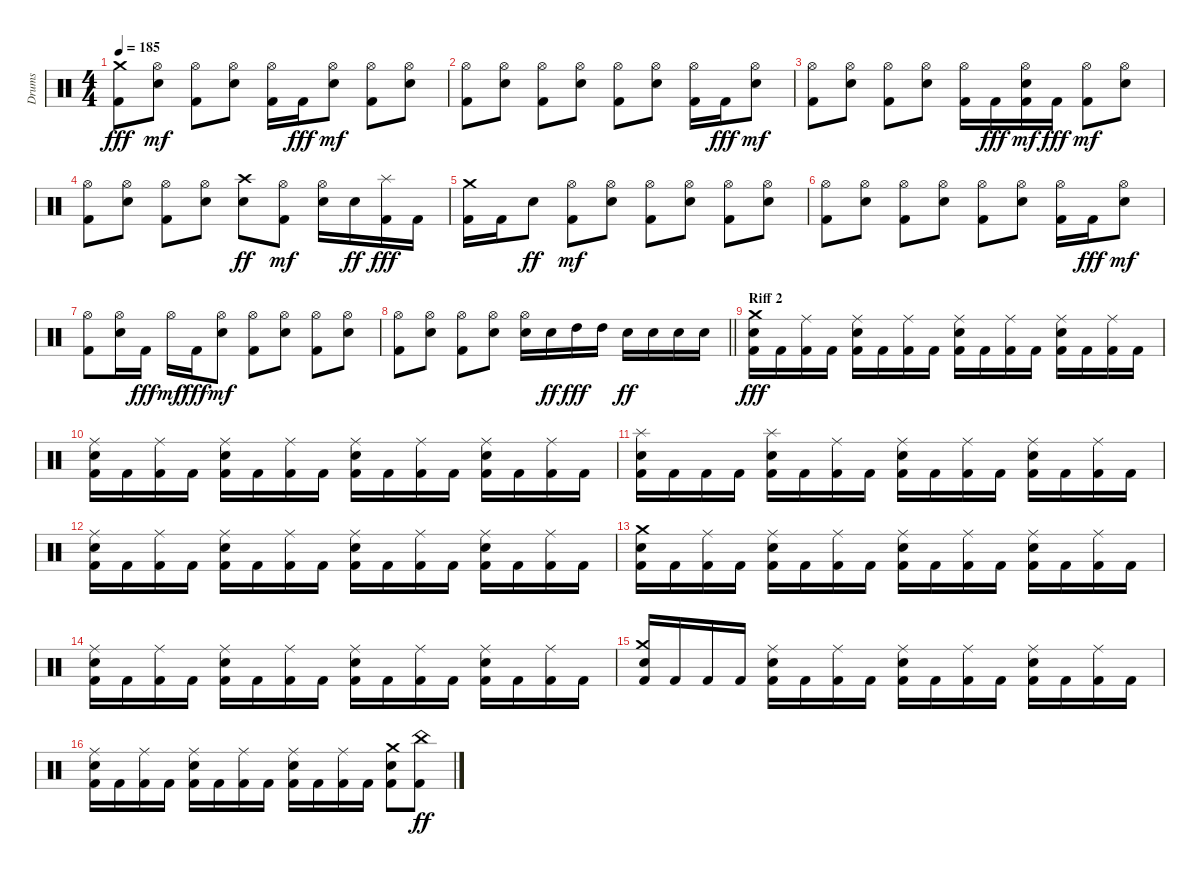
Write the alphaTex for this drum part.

\track ("Drums" "Drums") {instrument percussion}
\staff {score}
\articulation defaults
\ts (4 4)
\tempo 185
\clef neutral
\ks c
("Kick (hit) 2" "Crash medium (hit)").8{dy fff} ("Snare (hit) 2" "Hi-Hat (open)").8{dy mf} ("Kick (hit) 2" "Hi-Hat (open)").8 ("Snare (hit) 2" "Hi-Hat (open)").8 ("Kick (hit) 2" "Hi-Hat (open)").16 "Kick (hit) 2".16{dy fff} ("Snare (hit) 2" "Hi-Hat (open)").8{dy mf} ("Kick (hit) 2" "Hi-Hat (open)").8 ("Snare (hit) 2" "Hi-Hat (open)").8 |
("Kick (hit) 2" "Hi-Hat (open)").8 ("Snare (hit) 2" "Hi-Hat (open)").8 ("Kick (hit) 2" "Hi-Hat (open)").8 ("Snare (hit) 2" "Hi-Hat (open)").8 ("Kick (hit) 2" "Hi-Hat (open)").8 ("Snare (hit) 2" "Hi-Hat (open)").8 ("Kick (hit) 2" "Hi-Hat (open)").16 "Kick (hit) 2".16{dy fff} ("Snare (hit) 2" "Hi-Hat (open)").8{dy mf} |
("Kick (hit) 2" "Hi-Hat (open)").8 ("Snare (hit) 2" "Hi-Hat (open)").8 ("Kick (hit) 2" "Hi-Hat (open)").8 ("Snare (hit) 2" "Hi-Hat (open)").8 ("Kick (hit) 2" "Hi-Hat (open)").16 "Kick (hit) 2".16{dy fff} ("Kick (hit) 2" "Snare (hit) 2" "Hi-Hat (open)").16{dy mf} "Kick (hit) 2".16{dy fff} ("Kick (hit) 2" "Hi-Hat (open)").8{dy mf} ("Snare (hit) 2" "Hi-Hat (open)").8 |
("Kick (hit) 2" "Hi-Hat (open)").8 ("Snare (hit) 2" "Hi-Hat (open)").8 ("Kick (hit) 2" "Hi-Hat (open)").8 ("Snare (hit) 2" "Hi-Hat (open)").8 ("Snare (hit) 2" "Crash high (hit)").8{dy ff} ("Kick (hit) 2" "Hi-Hat (open)").8{dy mf} ("Snare (hit) 2" "Hi-Hat (open)").16 "Snare (hit) 2".16{dy ff} ("Kick (hit) 2" "Splash (hit)").16{dy fff} "Kick (hit) 2".16 |
("Kick (hit) 2" "Crash medium (hit)").16 "Kick (hit) 2".16 "Snare (hit) 2".8{dy ff} ("Kick (hit) 2" "Hi-Hat (open)").8{dy mf} ("Snare (hit) 2" "Hi-Hat (open)").8 ("Kick (hit) 2" "Hi-Hat (open)").8 ("Snare (hit) 2" "Hi-Hat (open)").8 ("Kick (hit) 2" "Hi-Hat (open)").8 ("Snare (hit) 2" "Hi-Hat (open)").8 |
("Kick (hit) 2" "Hi-Hat (open)").8 ("Snare (hit) 2" "Hi-Hat (open)").8 ("Kick (hit) 2" "Hi-Hat (open)").8 ("Snare (hit) 2" "Hi-Hat (open)").8 ("Kick (hit) 2" "Hi-Hat (open)").8 ("Snare (hit) 2" "Hi-Hat (open)").8 ("Kick (hit) 2" "Hi-Hat (open)").16 "Kick (hit) 2".16{dy fff} ("Snare (hit) 2" "Hi-Hat (open)").8{dy mf} |
("Kick (hit) 2" "Hi-Hat (open)").8 ("Snare (hit) 2" "Hi-Hat (open)").16 "Kick (hit) 2".16{dy fff} "Hi-Hat (open)".16{dy mf} "Kick (hit) 2".16{dy fff} ("Snare (hit) 2" "Hi-Hat (open)").8{dy mf} ("Kick (hit) 2" "Hi-Hat (open)").8 ("Snare (hit) 2" "Hi-Hat (open)").8 ("Kick (hit) 2" "Hi-Hat (open)").8 ("Snare (hit) 2" "Hi-Hat (open)").8 |
\barLineRight lightlight
("Kick (hit) 2" "Hi-Hat (open)").8 ("Snare (hit) 2" "Hi-Hat (open)").8 ("Kick (hit) 2" "Hi-Hat (open)").8 ("Snare (hit) 2" "Hi-Hat (open)").8 ("Snare (hit) 2" "Hi-Hat (open)").16 "Snare (hit) 2".16{dy ff} "High Tom (hit)".16{dy fff} "High Tom (hit)".16 "Snare (hit) 2".16{dy ff} "Snare (hit) 2".16 "Snare (hit) 2".16 "Snare (hit) 2".16 |
\section ("" "Riff 2")
("Kick (hit) 2" "Snare (hit) 2" "Crash medium (hit)").16{dy fff} "Kick (hit) 2".16 ("Kick (hit) 2" "Ride (middle)").16 "Kick (hit) 2".16 ("Kick (hit) 2" "Snare (hit) 2" "Ride (middle)").16 "Kick (hit) 2".16 ("Kick (hit) 2" "Ride (middle)").16 "Kick (hit) 2".16 ("Kick (hit) 2" "Snare (hit) 2" "Ride (middle)").16 "Kick (hit) 2".16 ("Kick (hit) 2" "Ride (middle)").16 "Kick (hit) 2".16 ("Kick (hit) 2" "Snare (hit) 2" "Ride (middle)").16 "Kick (hit) 2".16 ("Kick (hit) 2" "Ride (middle)").16 "Kick (hit) 2".16 |
("Kick (hit) 2" "Snare (hit) 2" "Ride (middle)").16 "Kick (hit) 2".16 ("Kick (hit) 2" "Ride (middle)").16 "Kick (hit) 2".16 ("Kick (hit) 2" "Snare (hit) 2" "Ride (middle)").16 "Kick (hit) 2".16 ("Kick (hit) 2" "Ride (middle)").16 "Kick (hit) 2".16 ("Kick (hit) 2" "Snare (hit) 2" "Ride (middle)").16 "Kick (hit) 2".16 ("Kick (hit) 2" "Ride (middle)").16 "Kick (hit) 2".16 ("Kick (hit) 2" "Snare (hit) 2" "Ride (middle)").16 "Kick (hit) 2".16 ("Kick (hit) 2" "Ride (middle)").16 "Kick (hit) 2".16 |
("Kick (hit) 2" "Snare (hit) 2" "Splash (hit)").16 "Kick (hit) 2".16 "Kick (hit) 2".16 "Kick (hit) 2".16 ("Kick (hit) 2" "Snare (hit) 2" "Splash (hit)").16 "Kick (hit) 2".16 ("Kick (hit) 2" "Ride (middle)").16 "Kick (hit) 2".16 ("Kick (hit) 2" "Snare (hit) 2" "Ride (middle)").16 "Kick (hit) 2".16 ("Kick (hit) 2" "Ride (middle)").16 "Kick (hit) 2".16 ("Kick (hit) 2" "Snare (hit) 2" "Ride (middle)").16 "Kick (hit) 2".16 ("Kick (hit) 2" "Ride (middle)").16 "Kick (hit) 2".16 |
("Kick (hit) 2" "Snare (hit) 2" "Ride (middle)").16 "Kick (hit) 2".16 ("Kick (hit) 2" "Ride (middle)").16 "Kick (hit) 2".16 ("Kick (hit) 2" "Snare (hit) 2" "Ride (middle)").16 "Kick (hit) 2".16 ("Kick (hit) 2" "Ride (middle)").16 "Kick (hit) 2".16 ("Kick (hit) 2" "Snare (hit) 2" "Ride (middle)").16 "Kick (hit) 2".16 ("Kick (hit) 2" "Ride (middle)").16 "Kick (hit) 2".16 ("Kick (hit) 2" "Snare (hit) 2" "Ride (middle)").16 "Kick (hit) 2".16 ("Kick (hit) 2" "Ride (middle)").16 "Kick (hit) 2".16 |
("Kick (hit) 2" "Snare (hit) 2" "Crash medium (hit)").16 "Kick (hit) 2".16 ("Kick (hit) 2" "Ride (middle)").16 "Kick (hit) 2".16 ("Kick (hit) 2" "Snare (hit) 2" "Ride (middle)").16 "Kick (hit) 2".16 ("Kick (hit) 2" "Ride (middle)").16 "Kick (hit) 2".16 ("Kick (hit) 2" "Snare (hit) 2" "Ride (middle)").16 "Kick (hit) 2".16 ("Kick (hit) 2" "Ride (middle)").16 "Kick (hit) 2".16 ("Kick (hit) 2" "Snare (hit) 2" "Ride (middle)").16 "Kick (hit) 2".16 ("Kick (hit) 2" "Ride (middle)").16 "Kick (hit) 2".16 |
("Kick (hit) 2" "Snare (hit) 2" "Ride (middle)").16 "Kick (hit) 2".16 ("Kick (hit) 2" "Ride (middle)").16 "Kick (hit) 2".16 ("Kick (hit) 2" "Snare (hit) 2" "Ride (middle)").16 "Kick (hit) 2".16 ("Kick (hit) 2" "Ride (middle)").16 "Kick (hit) 2".16 ("Kick (hit) 2" "Snare (hit) 2" "Ride (middle)").16 "Kick (hit) 2".16 ("Kick (hit) 2" "Ride (middle)").16 "Kick (hit) 2".16 ("Kick (hit) 2" "Snare (hit) 2" "Ride (middle)").16 "Kick (hit) 2".16 ("Kick (hit) 2" "Ride (middle)").16 "Kick (hit) 2".16 |
("Kick (hit) 2" "Snare (hit) 2" "Crash medium (hit)").16 "Kick (hit) 2".16 "Kick (hit) 2".16 "Kick (hit) 2".16 ("Kick (hit) 2" "Snare (hit) 2" "Ride (middle)").16 "Kick (hit) 2".16 ("Kick (hit) 2" "Ride (middle)").16 "Kick (hit) 2".16 ("Kick (hit) 2" "Snare (hit) 2" "Ride (middle)").16 "Kick (hit) 2".16 ("Kick (hit) 2" "Ride (middle)").16 "Kick (hit) 2".16 ("Kick (hit) 2" "Snare (hit) 2" "Ride (middle)").16 "Kick (hit) 2".16 ("Kick (hit) 2" "Ride (middle)").16 "Kick (hit) 2".16 |
("Kick (hit) 2" "Snare (hit) 2" "Ride (middle)").16 "Kick (hit) 2".16 ("Kick (hit) 2" "Ride (middle)").16 "Kick (hit) 2".16 ("Kick (hit) 2" "Snare (hit) 2" "Ride (middle)").16 "Kick (hit) 2".16 ("Kick (hit) 2" "Ride (middle)").16 "Kick (hit) 2".16 ("Kick (hit) 2" "Snare (hit) 2" "Ride (middle)").16 "Kick (hit) 2".16 ("Kick (hit) 2" "Ride (middle)").16 "Kick (hit) 2".16 ("Kick (hit) 2" "Snare (hit) 2" "Crash medium (hit)").8 ("Kick (hit) 2" "China (hit)").8{dy ff}
